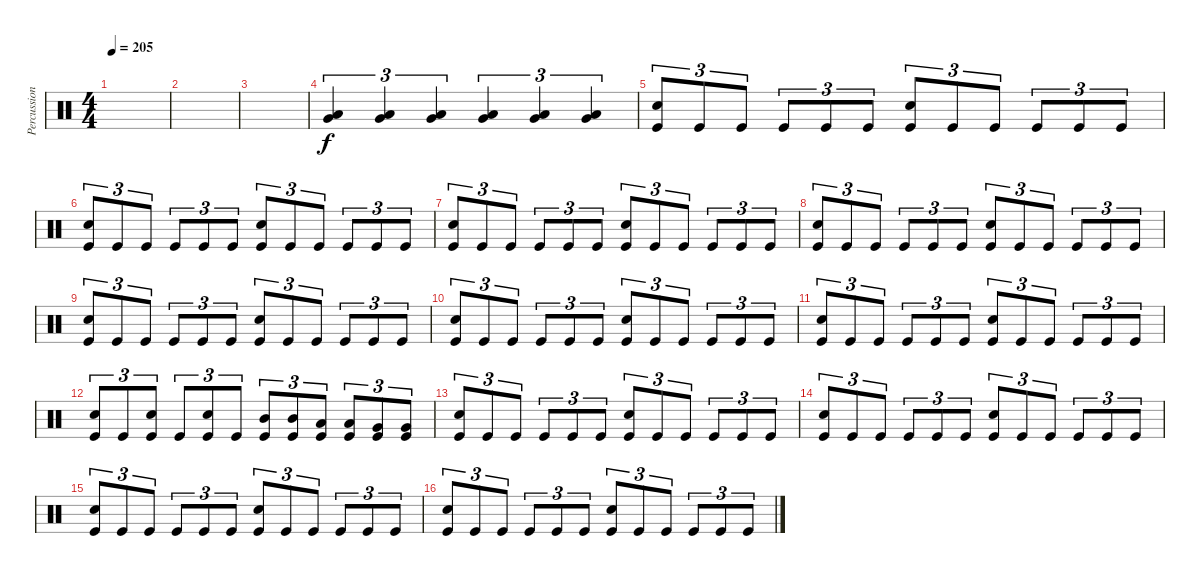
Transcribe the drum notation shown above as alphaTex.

\track ("Percussion" "Percussion") {instrument percussion}
\staff {score}
\articulation defaults
\ts (4 4)
\tempo 205
\clef neutral
\ks c
|
|
|
("Very Low Tom (hit)" "Low Floor Tom (hit)").4{tu (3 2)} ("Very Low Tom (hit)" "Low Floor Tom (hit)").4{tu (3 2)} ("Very Low Tom (hit)" "Low Floor Tom (hit)").4{tu (3 2)} ("Very Low Tom (hit)" "Low Floor Tom (hit)").4{tu (3 2)} ("Very Low Tom (hit)" "Low Floor Tom (hit)").4{tu (3 2)} ("Very Low Tom (hit)" "Low Floor Tom (hit)").4{tu (3 2)} |
("Snare (hit) 2" "Kick (hit)").8{tu (3 2)} "Kick (hit)".8{tu (3 2)} "Kick (hit)".8{tu (3 2)} "Kick (hit)".8{tu (3 2)} "Kick (hit)".8{tu (3 2)} "Kick (hit)".8{tu (3 2)} ("Snare (hit) 2" "Kick (hit)").8{tu (3 2)} "Kick (hit)".8{tu (3 2)} "Kick (hit)".8{tu (3 2)} "Kick (hit)".8{tu (3 2)} "Kick (hit)".8{tu (3 2)} "Kick (hit)".8{tu (3 2)} |
("Snare (hit) 2" "Kick (hit)").8{tu (3 2)} "Kick (hit)".8{tu (3 2)} "Kick (hit)".8{tu (3 2)} "Kick (hit)".8{tu (3 2)} "Kick (hit)".8{tu (3 2)} "Kick (hit)".8{tu (3 2)} ("Snare (hit) 2" "Kick (hit)").8{tu (3 2)} "Kick (hit)".8{tu (3 2)} "Kick (hit)".8{tu (3 2)} "Kick (hit)".8{tu (3 2)} "Kick (hit)".8{tu (3 2)} "Kick (hit)".8{tu (3 2)} |
("Snare (hit) 2" "Kick (hit)").8{tu (3 2)} "Kick (hit)".8{tu (3 2)} "Kick (hit)".8{tu (3 2)} "Kick (hit)".8{tu (3 2)} "Kick (hit)".8{tu (3 2)} "Kick (hit)".8{tu (3 2)} ("Snare (hit) 2" "Kick (hit)").8{tu (3 2)} "Kick (hit)".8{tu (3 2)} "Kick (hit)".8{tu (3 2)} "Kick (hit)".8{tu (3 2)} "Kick (hit)".8{tu (3 2)} "Kick (hit)".8{tu (3 2)} |
("Snare (hit) 2" "Kick (hit)").8{tu (3 2)} "Kick (hit)".8{tu (3 2)} "Kick (hit)".8{tu (3 2)} "Kick (hit)".8{tu (3 2)} "Kick (hit)".8{tu (3 2)} "Kick (hit)".8{tu (3 2)} ("Snare (hit) 2" "Kick (hit)").8{tu (3 2)} "Kick (hit)".8{tu (3 2)} "Kick (hit)".8{tu (3 2)} "Kick (hit)".8{tu (3 2)} "Kick (hit)".8{tu (3 2)} "Kick (hit)".8{tu (3 2)} |
("Snare (hit) 2" "Kick (hit)").8{tu (3 2)} "Kick (hit)".8{tu (3 2)} "Kick (hit)".8{tu (3 2)} "Kick (hit)".8{tu (3 2)} "Kick (hit)".8{tu (3 2)} "Kick (hit)".8{tu (3 2)} ("Snare (hit) 2" "Kick (hit)").8{tu (3 2)} "Kick (hit)".8{tu (3 2)} "Kick (hit)".8{tu (3 2)} "Kick (hit)".8{tu (3 2)} "Kick (hit)".8{tu (3 2)} "Kick (hit)".8{tu (3 2)} |
("Snare (hit) 2" "Kick (hit)").8{tu (3 2)} "Kick (hit)".8{tu (3 2)} "Kick (hit)".8{tu (3 2)} "Kick (hit)".8{tu (3 2)} "Kick (hit)".8{tu (3 2)} "Kick (hit)".8{tu (3 2)} ("Snare (hit) 2" "Kick (hit)").8{tu (3 2)} "Kick (hit)".8{tu (3 2)} "Kick (hit)".8{tu (3 2)} "Kick (hit)".8{tu (3 2)} "Kick (hit)".8{tu (3 2)} "Kick (hit)".8{tu (3 2)} |
("Snare (hit) 2" "Kick (hit)").8{tu (3 2)} "Kick (hit)".8{tu (3 2)} "Kick (hit)".8{tu (3 2)} "Kick (hit)".8{tu (3 2)} "Kick (hit)".8{tu (3 2)} "Kick (hit)".8{tu (3 2)} ("Snare (hit) 2" "Kick (hit)").8{tu (3 2)} "Kick (hit)".8{tu (3 2)} "Kick (hit)".8{tu (3 2)} "Kick (hit)".8{tu (3 2)} "Kick (hit)".8{tu (3 2)} "Kick (hit)".8{tu (3 2)} |
("Snare (hit) 2" "Kick (hit)").8{tu (3 2)} "Kick (hit)".8{tu (3 2)} ("Snare (hit) 2" "Kick (hit)").8{tu (3 2)} "Kick (hit)".8{tu (3 2)} ("Snare (hit) 2" "Kick (hit)").8{tu (3 2)} "Kick (hit)".8{tu (3 2)} ("Mid Tom (hit)" "Kick (hit)").8{tu (3 2)} ("Mid Tom (hit)" "Kick (hit)").8{tu (3 2)} ("Low Tom (hit)" "Kick (hit)").8{tu (3 2)} ("Low Tom (hit)" "Kick (hit)").8{tu (3 2)} ("Very Low Tom (hit)" "Kick (hit)").8{tu (3 2)} ("Very Low Tom (hit)" "Kick (hit)").8{tu (3 2)} |
("Snare (hit) 2" "Kick (hit)").8{tu (3 2)} "Kick (hit)".8{tu (3 2)} "Kick (hit)".8{tu (3 2)} "Kick (hit)".8{tu (3 2)} "Kick (hit)".8{tu (3 2)} "Kick (hit)".8{tu (3 2)} ("Snare (hit) 2" "Kick (hit)").8{tu (3 2)} "Kick (hit)".8{tu (3 2)} "Kick (hit)".8{tu (3 2)} "Kick (hit)".8{tu (3 2)} "Kick (hit)".8{tu (3 2)} "Kick (hit)".8{tu (3 2)} |
("Snare (hit) 2" "Kick (hit)").8{tu (3 2)} "Kick (hit)".8{tu (3 2)} "Kick (hit)".8{tu (3 2)} "Kick (hit)".8{tu (3 2)} "Kick (hit)".8{tu (3 2)} "Kick (hit)".8{tu (3 2)} ("Snare (hit) 2" "Kick (hit)").8{tu (3 2)} "Kick (hit)".8{tu (3 2)} "Kick (hit)".8{tu (3 2)} "Kick (hit)".8{tu (3 2)} "Kick (hit)".8{tu (3 2)} "Kick (hit)".8{tu (3 2)} |
("Snare (hit) 2" "Kick (hit)").8{tu (3 2)} "Kick (hit)".8{tu (3 2)} "Kick (hit)".8{tu (3 2)} "Kick (hit)".8{tu (3 2)} "Kick (hit)".8{tu (3 2)} "Kick (hit)".8{tu (3 2)} ("Snare (hit) 2" "Kick (hit)").8{tu (3 2)} "Kick (hit)".8{tu (3 2)} "Kick (hit)".8{tu (3 2)} "Kick (hit)".8{tu (3 2)} "Kick (hit)".8{tu (3 2)} "Kick (hit)".8{tu (3 2)} |
("Snare (hit) 2" "Kick (hit)").8{tu (3 2)} "Kick (hit)".8{tu (3 2)} "Kick (hit)".8{tu (3 2)} "Kick (hit)".8{tu (3 2)} "Kick (hit)".8{tu (3 2)} "Kick (hit)".8{tu (3 2)} ("Snare (hit) 2" "Kick (hit)").8{tu (3 2)} "Kick (hit)".8{tu (3 2)} "Kick (hit)".8{tu (3 2)} "Kick (hit)".8{tu (3 2)} "Kick (hit)".8{tu (3 2)} "Kick (hit)".8{tu (3 2)}
